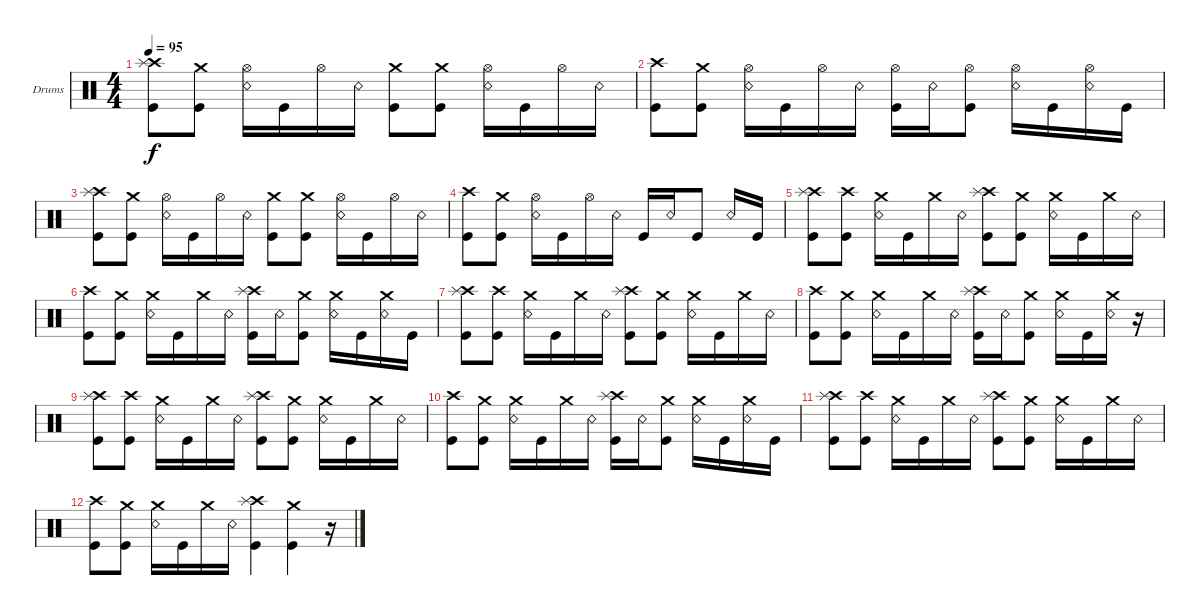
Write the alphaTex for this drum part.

\defaultSystemsLayout 4
\bracketExtendMode groupsimilarinstruments
\firstSystemTrackNameOrientation horizontal
\otherSystemsTrackNameOrientation horizontal
\track ("Drumkit" "Drums") {instrument percussion}
\staff {score}
\articulation defaults
\ts (4 4)
\tempo 95
\clef neutral
\ks c
("Kick (hit)" "Crash high (hit)" "Splash (hit)").8{dy f} ("Kick (hit)" "Crash medium (hit)").8 ("Snare (rim shot)" "Hi-Hat (open)").16 "Kick (hit)".16 "Hi-Hat (open)".16 "Snare (rim shot)".16 ("Kick (hit)" "Crash medium (hit)").8 ("Kick (hit)" "Crash medium (hit)").8 ("Snare (rim shot)" "Hi-Hat (open)").16 "Kick (hit)".16 "Hi-Hat (open)".16 "Snare (rim shot)".16 |
("Kick (hit)" "Crash high (hit)").8 ("Kick (hit)" "Crash medium (hit)").8 ("Snare (rim shot)" "Hi-Hat (open)").16 "Kick (hit)".16 "Hi-Hat (open)".16 "Snare (rim shot)".16 ("Kick (hit)" "Hi-Hat (open)").16 "Snare (rim shot)".16 ("Kick (hit)" "Hi-Hat (open)").8 ("Hi-Hat (open)" "Snare (rim shot)").16 "Kick (hit)".16 ("Hi-Hat (open)" "Snare (rim shot)").16 "Kick (hit)".16 |
("Kick (hit)" "Crash high (hit)" "Splash (hit)").8 ("Kick (hit)" "Crash medium (hit)").8 ("Snare (rim shot)" "Hi-Hat (open)").16 "Kick (hit)".16 "Hi-Hat (open)".16 "Snare (rim shot)".16 ("Kick (hit)" "Crash medium (hit)").8 ("Kick (hit)" "Crash medium (hit)").8 ("Snare (rim shot)" "Hi-Hat (open)").16 "Kick (hit)".16 "Hi-Hat (open)".16 "Snare (rim shot)".16 |
("Kick (hit)" "Crash high (hit)").8 ("Kick (hit)" "Crash medium (hit)").8 ("Snare (rim shot)" "Hi-Hat (open)").16 "Kick (hit)".16 "Hi-Hat (open)".16 "Snare (rim shot)".16 "Kick (hit)".16 "Snare (rim shot)".16 "Kick (hit)".8 "Snare (rim shot)".16 "Kick (hit)".16 |
("Kick (hit)" "Crash high (hit)" "Splash (hit)").8 ("Kick (hit)" "Crash high (hit)").8 ("Snare (rim shot)" "Crash medium (hit)").16 "Kick (hit)".16 "Crash medium (hit)".16 "Snare (rim shot)".16 ("Kick (hit)" "Crash high (hit)" "Splash (hit)").8 ("Kick (hit)" "Crash medium (hit)").8 ("Snare (rim shot)" "Crash medium (hit)").16 "Kick (hit)".16 "Crash medium (hit)".16 "Snare (rim shot)".16 |
("Kick (hit)" "Crash high (hit)").8 ("Kick (hit)" "Crash medium (hit)").8 ("Snare (rim shot)" "Crash medium (hit)").16 "Kick (hit)".16 "Crash medium (hit)".16 "Snare (rim shot)".16 ("Kick (hit)" "Crash high (hit)" "Splash (hit)").16 "Snare (rim shot)".16 ("Kick (hit)" "Crash medium (hit)").8 ("Snare (rim shot)" "Crash medium (hit)").16 "Kick (hit)".16 ("Snare (rim shot)" "Crash medium (hit)").16 "Kick (hit)".16 |
("Kick (hit)" "Crash high (hit)" "Splash (hit)").8 ("Kick (hit)" "Crash high (hit)").8 ("Snare (rim shot)" "Crash medium (hit)").16 "Kick (hit)".16 "Crash medium (hit)".16 "Snare (rim shot)".16 ("Kick (hit)" "Crash high (hit)" "Splash (hit)").8 ("Kick (hit)" "Crash medium (hit)").8 ("Snare (rim shot)" "Crash medium (hit)").16 "Kick (hit)".16 "Crash medium (hit)".16 "Snare (rim shot)".16 |
("Kick (hit)" "Crash high (hit)").8 ("Kick (hit)" "Crash medium (hit)").8 ("Snare (rim shot)" "Crash medium (hit)").16 "Kick (hit)".16 "Crash medium (hit)".16 "Snare (rim shot)".16 ("Kick (hit)" "Crash high (hit)" "Splash (hit)").16 "Snare (rim shot)".16 ("Kick (hit)" "Crash medium (hit)").8 ("Snare (rim shot)" "Crash medium (hit)").16 "Kick (hit)".16 ("Snare (rim shot)" "Crash medium (hit)").16 r.16 |
("Kick (hit)" "Crash high (hit)" "Splash (hit)").8 ("Kick (hit)" "Crash high (hit)").8 ("Snare (rim shot)" "Crash medium (hit)").16 "Kick (hit)".16 "Crash medium (hit)".16 "Snare (rim shot)".16 ("Kick (hit)" "Crash high (hit)" "Splash (hit)").8 ("Kick (hit)" "Crash medium (hit)").8 ("Snare (rim shot)" "Crash medium (hit)").16 "Kick (hit)".16 "Crash medium (hit)".16 "Snare (rim shot)".16 |
("Kick (hit)" "Crash high (hit)").8 ("Kick (hit)" "Crash medium (hit)").8 ("Snare (rim shot)" "Crash medium (hit)").16 "Kick (hit)".16 "Crash medium (hit)".16 "Snare (rim shot)".16 ("Kick (hit)" "Crash high (hit)" "Splash (hit)").16 "Snare (rim shot)".16 ("Kick (hit)" "Crash medium (hit)").8 ("Snare (rim shot)" "Crash medium (hit)").16 "Kick (hit)".16 ("Snare (rim shot)" "Crash medium (hit)").16 "Kick (hit)".16 |
("Kick (hit)" "Crash high (hit)" "Splash (hit)").8 ("Kick (hit)" "Crash high (hit)").8 ("Snare (rim shot)" "Crash medium (hit)").16 "Kick (hit)".16 "Crash medium (hit)".16 "Snare (rim shot)".16 ("Kick (hit)" "Crash high (hit)" "Splash (hit)").8 ("Kick (hit)" "Crash medium (hit)").8 ("Snare (rim shot)" "Crash medium (hit)").16 "Kick (hit)".16 "Crash medium (hit)".16 "Snare (rim shot)".16 |
("Kick (hit)" "Crash high (hit)").8 ("Kick (hit)" "Crash medium (hit)").8 ("Snare (rim shot)" "Crash medium (hit)").16 "Kick (hit)".16 "Crash medium (hit)".16 "Snare (rim shot)".16 ("Kick (hit)" "Crash high (hit)" "Splash (hit)").4 ("Kick (hit)" "Crash medium (hit)").4 r.16
